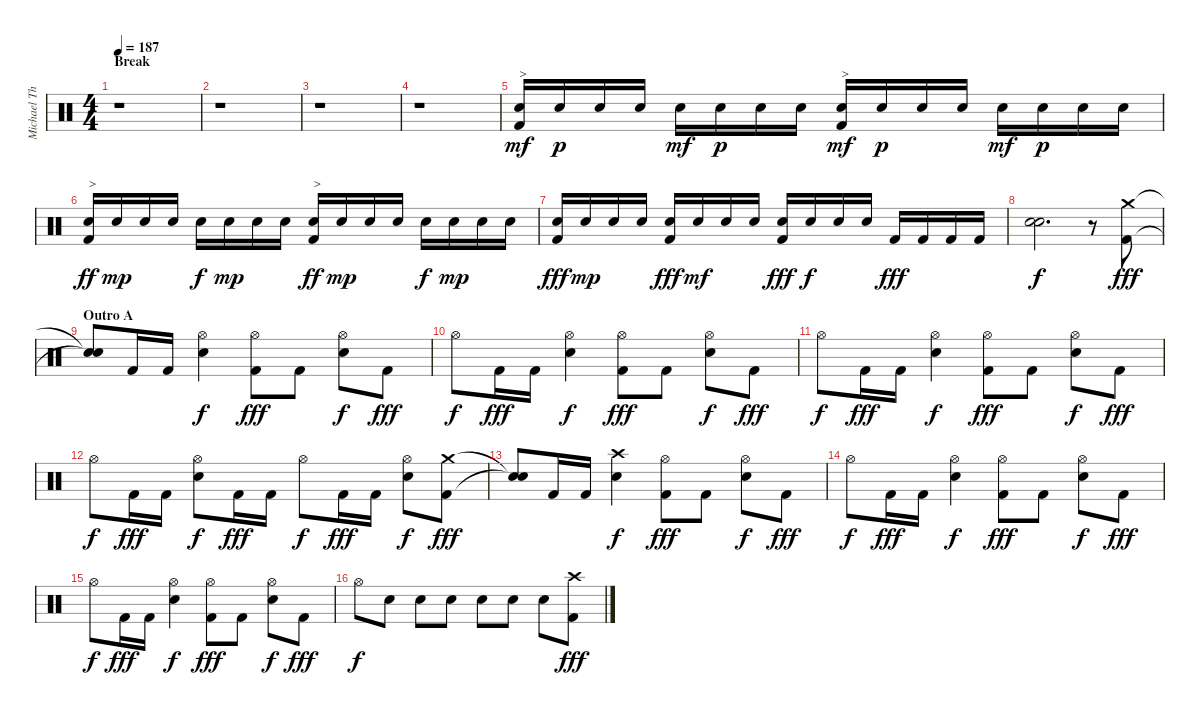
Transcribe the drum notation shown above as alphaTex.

\track ("Michael Thomas" "Michael Th") {instrument percussion}
\staff {score}
\articulation defaults
\ts (4 4)
\section ("" "Break")
\tempo 187
\clef neutral
\ks c
r.1{dy fff} |
r.1 |
r.1 |
r.1 |
("Electric Snare (hit)" "Kick (hit) 2").16{txt ">" dy mf} "Electric Snare (hit)".16{dy p} "Electric Snare (hit)".16 "Electric Snare (hit)".16 "Electric Snare (hit)".16{dy mf} "Electric Snare (hit)".16{dy p} "Electric Snare (hit)".16 "Electric Snare (hit)".16 ("Electric Snare (hit)" "Kick (hit) 2").16{txt ">" dy mf} "Electric Snare (hit)".16{dy p} "Electric Snare (hit)".16 "Electric Snare (hit)".16 "Electric Snare (hit)".16{dy mf} "Electric Snare (hit)".16{dy p} "Electric Snare (hit)".16 "Electric Snare (hit)".16 |
("Electric Snare (hit)" "Kick (hit) 2").16{txt ">" dy ff} "Electric Snare (hit)".16{dy mp} "Electric Snare (hit)".16 "Electric Snare (hit)".16 "Electric Snare (hit)".16{dy f} "Electric Snare (hit)".16{dy mp} "Electric Snare (hit)".16 "Electric Snare (hit)".16 ("Electric Snare (hit)" "Kick (hit) 2").16{txt ">" dy ff} "Electric Snare (hit)".16{dy mp} "Electric Snare (hit)".16 "Electric Snare (hit)".16 "Electric Snare (hit)".16{dy f} "Electric Snare (hit)".16{dy mp} "Electric Snare (hit)".16 "Electric Snare (hit)".16 |
("Electric Snare (hit)" "Kick (hit) 2").16{dy fff} "Electric Snare (hit)".16{dy mp} "Electric Snare (hit)".16 "Electric Snare (hit)".16 ("Electric Snare (hit)" "Kick (hit) 2").16{dy fff} "Electric Snare (hit)".16{dy mf} "Electric Snare (hit)".16 "Electric Snare (hit)".16 ("Electric Snare (hit)" "Kick (hit) 2").16{dy fff} "Electric Snare (hit)".16{dy f} "Electric Snare (hit)".16 "Electric Snare (hit)".16 "Kick (hit) 2".16{dy fff} "Kick (hit) 2".16 "Kick (hit) 2".16 "Kick (hit) 2".16 |
("Electric Snare (hit)" "Electric Snare (hit)").2{d bd 120 dy f} r.8 ("Crash medium (hit)" "Kick (hit) 2").8{dy fff} |
\section ("" "Outro A")
("Snare (hit)"{t} "Snare (hit)"{t}).8 "Kick (hit) 2".16 "Kick (hit) 2".16 ("Hi-Hat (open)" "Electric Snare (hit)").4{dy f} ("Hi-Hat (open)" "Kick (hit) 2").8{dy fff} "Kick (hit) 2".8 ("Hi-Hat (open)" "Electric Snare (hit)").8{dy f} "Kick (hit) 2".8{dy fff} |
"Hi-Hat (open)".8{dy f} "Kick (hit) 2".16{dy fff} "Kick (hit) 2".16 ("Hi-Hat (open)" "Electric Snare (hit)").4{dy f} ("Hi-Hat (open)" "Kick (hit) 2").8{dy fff} "Kick (hit) 2".8 ("Hi-Hat (open)" "Electric Snare (hit)").8{dy f} "Kick (hit) 2".8{dy fff} |
"Hi-Hat (open)".8{dy f} "Kick (hit) 2".16{dy fff} "Kick (hit) 2".16 ("Hi-Hat (open)" "Electric Snare (hit)").4{dy f} ("Hi-Hat (open)" "Kick (hit) 2").8{dy fff} "Kick (hit) 2".8 ("Hi-Hat (open)" "Electric Snare (hit)").8{dy f} "Kick (hit) 2".8{dy fff} |
"Hi-Hat (open)".8{dy f} "Kick (hit) 2".16{dy fff} "Kick (hit) 2".16 ("Hi-Hat (open)" "Electric Snare (hit)").8{dy f} "Kick (hit) 2".16{dy fff} "Kick (hit) 2".16 "Hi-Hat (open)".8{dy f} "Kick (hit) 2".16{dy fff} "Kick (hit) 2".16 ("Hi-Hat (open)" "Electric Snare (hit)").8{dy f} ("Crash medium (hit)" "Kick (hit) 2").8{dy fff} |
("Snare (hit)"{t} "Snare (hit)"{t}).8 "Kick (hit) 2".16 "Kick (hit) 2".16 ("Crash high (hit)" "Electric Snare (hit)").4{dy f} ("Hi-Hat (open)" "Kick (hit) 2").8{dy fff} "Kick (hit) 2".8 ("Hi-Hat (open)" "Electric Snare (hit)").8{dy f} "Kick (hit) 2".8{dy fff} |
"Hi-Hat (open)".8{dy f} "Kick (hit) 2".16{dy fff} "Kick (hit) 2".16 ("Hi-Hat (open)" "Electric Snare (hit)").4{dy f} ("Hi-Hat (open)" "Kick (hit) 2").8{dy fff} "Kick (hit) 2".8 ("Hi-Hat (open)" "Electric Snare (hit)").8{dy f} "Kick (hit) 2".8{dy fff} |
"Hi-Hat (open)".8{dy f} "Kick (hit) 2".16{dy fff} "Kick (hit) 2".16 ("Hi-Hat (open)" "Electric Snare (hit)").4{dy f} ("Hi-Hat (open)" "Kick (hit) 2").8{dy fff} "Kick (hit) 2".8 ("Hi-Hat (open)" "Electric Snare (hit)").8{dy f} "Kick (hit) 2".8{dy fff} |
"Hi-Hat (open)".8{dy f} "Electric Snare (hit)".8 "Electric Snare (hit)".8 "Electric Snare (hit)".8 "Electric Snare (hit)".8 "Electric Snare (hit)".8 "Electric Snare (hit)".8 ("Crash high (hit)" "Kick (hit) 2").8{dy fff}
